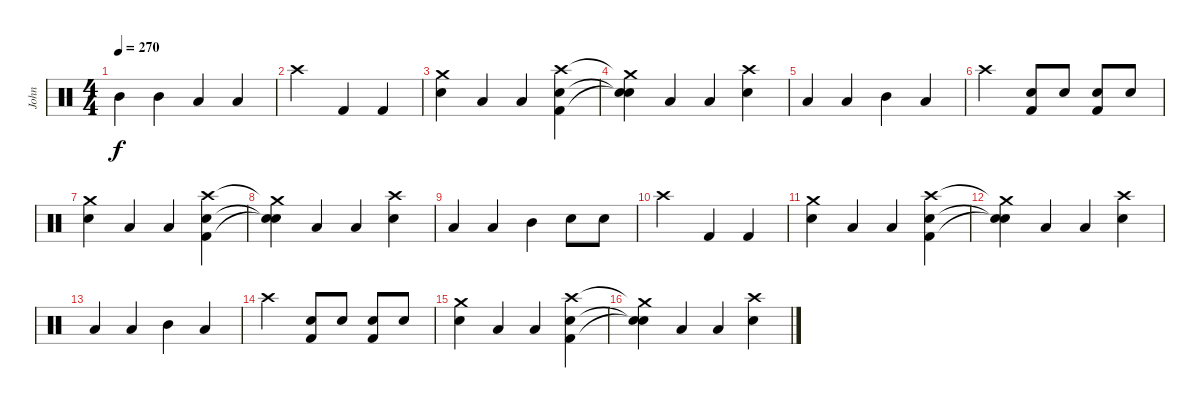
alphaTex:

\track ("John" "John") {instrument percussion}
\staff {score}
\articulation defaults
\ts (4 4)
\tempo 270
\clef neutral
\ks c "Mid Tom (hit)".4{dy f} "Mid Tom (hit)".4 "Low Tom (hit)".4 "Low Tom (hit)".4
|
"Crash high (hit)".2 "Kick (hit) 2".4 "Kick (hit) 2".4 |
("Crash medium (hit)" "Electric Snare (hit)").4 "Low Tom (hit)".4 "Low Tom (hit)".4 ("Crash high (hit)" "Electric Snare (hit)" "Kick (hit) 2").4 |
("Crash medium (hit)"{t} "Electric Snare (hit)"{t} "Snare (hit)"{t}).4 "Low Tom (hit)".4 "Low Tom (hit)".4 ("Crash high (hit)" "Electric Snare (hit)").4 |
"Low Tom (hit)".4 "Low Tom (hit)".4 "Mid Tom (hit)".4 "Low Tom (hit)".4 |
"Crash high (hit)".2 ("Electric Snare (hit)" "Kick (hit) 2").8 "Electric Snare (hit)".8 ("Electric Snare (hit)" "Kick (hit) 2").8 "Electric Snare (hit)".8 |
("Crash medium (hit)" "Electric Snare (hit)").4 "Low Tom (hit)".4 "Low Tom (hit)".4 ("Crash high (hit)" "Electric Snare (hit)" "Kick (hit) 2").4 |
("Crash medium (hit)"{t} "Electric Snare (hit)"{t} "Snare (hit)"{t}).4 "Low Tom (hit)".4 "Low Tom (hit)".4 ("Crash high (hit)" "Electric Snare (hit)").4 |
"Low Tom (hit)".4 "Low Tom (hit)".4 "Mid Tom (hit)".4 "Electric Snare (hit)".8 "Electric Snare (hit)".8 |
"Crash high (hit)".2 "Kick (hit) 2".4 "Kick (hit) 2".4 |
("Crash medium (hit)" "Electric Snare (hit)").4 "Low Tom (hit)".4 "Low Tom (hit)".4 ("Crash high (hit)" "Electric Snare (hit)" "Kick (hit) 2").4 |
("Crash medium (hit)"{t} "Electric Snare (hit)"{t} "Snare (hit)"{t}).4 "Low Tom (hit)".4 "Low Tom (hit)".4 ("Crash high (hit)" "Electric Snare (hit)").4 |
"Low Tom (hit)".4 "Low Tom (hit)".4 "Mid Tom (hit)".4 "Low Tom (hit)".4 |
"Crash high (hit)".2 ("Electric Snare (hit)" "Kick (hit) 2").8 "Electric Snare (hit)".8 ("Electric Snare (hit)" "Kick (hit) 2").8 "Electric Snare (hit)".8 |
("Crash medium (hit)" "Electric Snare (hit)").4 "Low Tom (hit)".4 "Low Tom (hit)".4 ("Crash high (hit)" "Electric Snare (hit)" "Kick (hit) 2").4 |
("Crash medium (hit)"{t} "Electric Snare (hit)"{t} "Snare (hit)"{t}).4 "Low Tom (hit)".4 "Low Tom (hit)".4 ("Crash high (hit)" "Electric Snare (hit)").4
